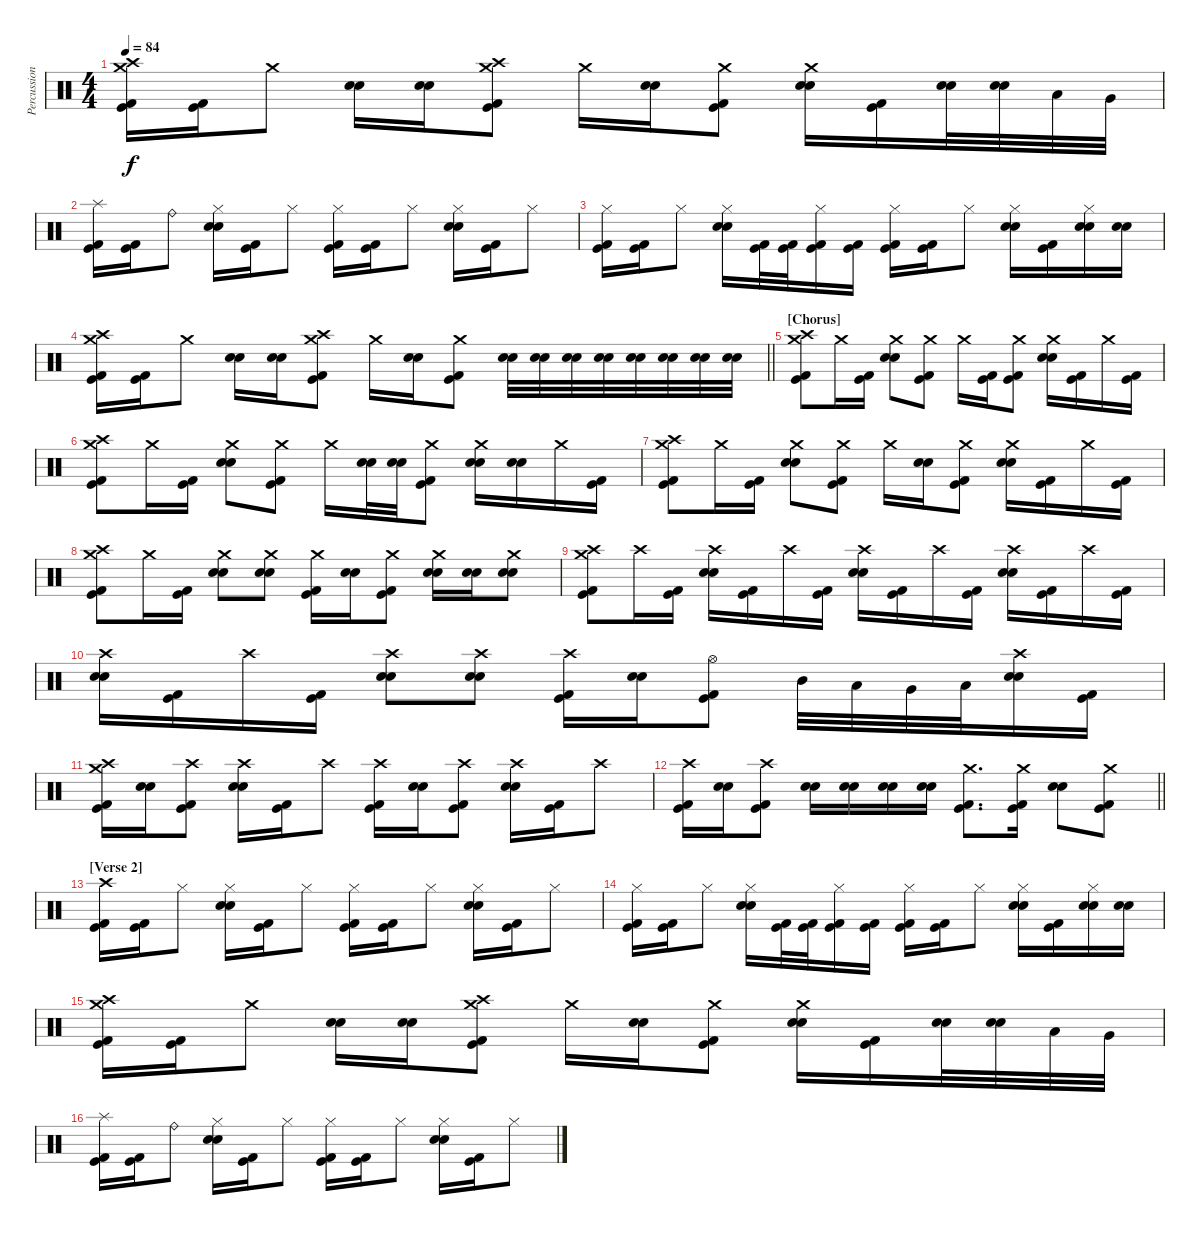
\track ("Percussion" "Percussion") {instrument percussion}
\staff {score}
\articulation defaults
\ts (4 4)
\tempo 84
\clef neutral
\ks c
("Crash high (hit)" "Crash medium (hit)" "Kick (hit)" "Kick (hit) 2").16{dy f} ("Kick (hit)" "Kick (hit) 2").16 "Crash medium (hit)".8 ("Electric Snare (hit)" "Snare (hit) 2").16 ("Electric Snare (hit)" "Snare (hit) 2").16 ("Crash high (hit)" "Crash medium (hit)" "Kick (hit)" "Kick (hit) 2").8 "Crash medium (hit)".16 ("Electric Snare (hit)" "Snare (hit) 2").16 ("Crash medium (hit)" "Kick (hit)" "Kick (hit) 2").8 ("Crash medium (hit)" "Electric Snare (hit)" "Snare (hit) 2").16 ("Kick (hit)" "Kick (hit) 2").16 ("Electric Snare (hit)" "Snare (hit) 2").32 ("Electric Snare (hit)" "Snare (hit) 2").32 "Low Tom (hit)".32 "Very Low Tom (hit)".32 |
("Splash (hit)" "Kick (hit)" "Kick (hit) 2").16{balance 2} ("Kick (hit)" "Kick (hit) 2").16 "Ride (bell)".8{balance 14} ("Hi-Hat (closed)" "Electric Snare (hit)" "Snare (hit) 2").16{balance 8} ("Kick (hit)" "Kick (hit) 2").16 "Hi-Hat (closed)".8 ("Hi-Hat (closed)" "Kick (hit)" "Kick (hit) 2").16 ("Kick (hit)" "Kick (hit) 2").16 "Hi-Hat (closed)".8 ("Hi-Hat (closed)" "Electric Snare (hit)" "Snare (hit) 2").16 ("Kick (hit)" "Kick (hit) 2").16 "Hi-Hat (closed)".8 |
("Hi-Hat (closed)" "Kick (hit)" "Kick (hit) 2").16 ("Kick (hit)" "Kick (hit) 2").16 "Hi-Hat (closed)".8 ("Hi-Hat (closed)" "Electric Snare (hit)" "Snare (hit) 2").16 ("Kick (hit)" "Kick (hit) 2").32 ("Kick (hit)" "Kick (hit) 2").32 ("Hi-Hat (closed)" "Kick (hit)" "Kick (hit) 2").16 ("Kick (hit)" "Kick (hit) 2").16 ("Hi-Hat (closed)" "Kick (hit)" "Kick (hit) 2").16 ("Kick (hit)" "Kick (hit) 2").16 "Hi-Hat (closed)".8 ("Hi-Hat (closed)" "Electric Snare (hit)" "Snare (hit) 2").16 ("Kick (hit)" "Kick (hit) 2").16 ("Hi-Hat (closed)" "Electric Snare (hit)" "Snare (hit) 2").16 ("Electric Snare (hit)" "Snare (hit) 2").16 |
\barLineRight lightlight
("Crash high (hit)" "Crash medium (hit)" "Kick (hit)" "Kick (hit) 2").16 ("Kick (hit)" "Kick (hit) 2").16 "Crash medium (hit)".8 ("Electric Snare (hit)" "Snare (hit) 2").16 ("Electric Snare (hit)" "Snare (hit) 2").16 ("Crash high (hit)" "Crash medium (hit)" "Kick (hit)" "Kick (hit) 2").8 "Crash medium (hit)".16 ("Electric Snare (hit)" "Snare (hit) 2").16 ("Crash medium (hit)" "Kick (hit)" "Kick (hit) 2").8 ("Electric Snare (hit)" "Snare (hit) 2").32 ("Electric Snare (hit)" "Snare (hit) 2").32 ("Electric Snare (hit)" "Snare (hit) 2").32 ("Electric Snare (hit)" "Snare (hit) 2").32 ("Electric Snare (hit)" "Snare (hit) 2").32 ("Electric Snare (hit)" "Snare (hit) 2").32 ("Electric Snare (hit)" "Snare (hit) 2").32 ("Electric Snare (hit)" "Snare (hit) 2").32 |
\section ("" "[Chorus]")
("Crash high (hit)" "Crash medium (hit)" "Kick (hit)" "Kick (hit) 2").8 "Crash medium (hit)".16 ("Kick (hit)" "Kick (hit) 2").16 ("Crash medium (hit)" "Electric Snare (hit)" "Snare (hit) 2").8 ("Crash medium (hit)" "Kick (hit)" "Kick (hit) 2").8 "Crash medium (hit)".16 ("Kick (hit)" "Kick (hit) 2").16 ("Crash medium (hit)" "Kick (hit)" "Kick (hit) 2").8 ("Crash medium (hit)" "Electric Snare (hit)" "Snare (hit) 2").16 ("Kick (hit)" "Kick (hit) 2").16 "Crash medium (hit)".16 ("Kick (hit)" "Kick (hit) 2").16 |
("Crash high (hit)" "Crash medium (hit)" "Kick (hit)" "Kick (hit) 2").8 "Crash medium (hit)".16 ("Kick (hit)" "Kick (hit) 2").16 ("Crash medium (hit)" "Electric Snare (hit)" "Snare (hit) 2").8 ("Crash medium (hit)" "Kick (hit)" "Kick (hit) 2").8 "Crash medium (hit)".16 ("Electric Snare (hit)" "Snare (hit) 2").32 ("Electric Snare (hit)" "Snare (hit) 2").32 ("Crash medium (hit)" "Kick (hit)" "Kick (hit) 2").8 ("Crash medium (hit)" "Electric Snare (hit)" "Snare (hit) 2").16 ("Electric Snare (hit)" "Snare (hit) 2").16 "Crash medium (hit)".16 ("Kick (hit)" "Kick (hit) 2").16 |
("Crash high (hit)" "Crash medium (hit)" "Kick (hit)" "Kick (hit) 2").8 "Crash medium (hit)".16 ("Kick (hit)" "Kick (hit) 2").16 ("Crash medium (hit)" "Electric Snare (hit)" "Snare (hit) 2").8 ("Crash medium (hit)" "Kick (hit)" "Kick (hit) 2").8 "Crash medium (hit)".16 ("Electric Snare (hit)" "Snare (hit) 2").16 ("Crash medium (hit)" "Kick (hit)" "Kick (hit) 2").8 ("Crash medium (hit)" "Electric Snare (hit)" "Snare (hit) 2").16 ("Kick (hit)" "Kick (hit) 2").16 "Crash medium (hit)".16 ("Kick (hit)" "Kick (hit) 2").16 |
("Crash high (hit)" "Crash medium (hit)" "Kick (hit)" "Kick (hit) 2").8 "Crash medium (hit)".16 ("Kick (hit)" "Kick (hit) 2").16 ("Crash medium (hit)" "Electric Snare (hit)" "Snare (hit) 2").8 ("Crash medium (hit)" "Electric Snare (hit)" "Snare (hit) 2").8 ("Crash medium (hit)" "Kick (hit)" "Kick (hit) 2").16 ("Electric Snare (hit)" "Snare (hit) 2").16 ("Crash medium (hit)" "Kick (hit)" "Kick (hit) 2").8 ("Crash medium (hit)" "Electric Snare (hit)" "Snare (hit) 2").16 ("Electric Snare (hit)" "Snare (hit) 2").16 ("Crash medium (hit)" "Electric Snare (hit)" "Snare (hit) 2").8 |
("Crash high (hit)" "Crash medium (hit)" "Kick (hit)" "Kick (hit) 2").8 "Crash high (hit)".16 ("Kick (hit)" "Kick (hit) 2").16 ("Crash high (hit)" "Electric Snare (hit)" "Snare (hit) 2").16 ("Kick (hit)" "Kick (hit) 2").16 "Crash high (hit)".16 ("Kick (hit)" "Kick (hit) 2").16 ("Crash high (hit)" "Electric Snare (hit)" "Snare (hit) 2").16 ("Kick (hit)" "Kick (hit) 2").16 "Crash high (hit)".16 ("Kick (hit)" "Kick (hit) 2").16 ("Crash high (hit)" "Electric Snare (hit)" "Snare (hit) 2").16 ("Kick (hit)" "Kick (hit) 2").16 "Crash high (hit)".16 ("Kick (hit)" "Kick (hit) 2").16 |
("Crash high (hit)" "Electric Snare (hit)" "Snare (hit) 2").16 ("Kick (hit)" "Kick (hit) 2").16 "Crash high (hit)".16 ("Kick (hit)" "Kick (hit) 2").16 ("Crash high (hit)" "Electric Snare (hit)" "Snare (hit) 2").8 ("Crash high (hit)" "Electric Snare (hit)" "Snare (hit) 2").8 ("Crash high (hit)" "Kick (hit)" "Kick (hit) 2").16 ("Electric Snare (hit)" "Snare (hit) 2").16 ("Hi-Hat (open)" "Kick (hit)" "Kick (hit) 2").8 "Mid Tom (hit)".32 "Low Tom (hit)".32 "Very Low Tom (hit)".32 "Low Floor Tom (hit)".32 ("Crash high (hit)" "Electric Snare (hit)" "Snare (hit) 2").16 ("Kick (hit)" "Kick (hit) 2").16 |
("Crash high (hit)" "Crash medium (hit)" "Kick (hit)" "Kick (hit) 2").16 ("Electric Snare (hit)" "Snare (hit) 2").16 ("Crash high (hit)" "Kick (hit)" "Kick (hit) 2").8 ("Crash high (hit)" "Electric Snare (hit)" "Snare (hit) 2").16 ("Kick (hit)" "Kick (hit) 2").16 "Crash high (hit)".8 ("Crash high (hit)" "Kick (hit)" "Kick (hit) 2").16 ("Electric Snare (hit)" "Snare (hit) 2").16 ("Crash high (hit)" "Kick (hit)" "Kick (hit) 2").8 ("Crash high (hit)" "Electric Snare (hit)" "Snare (hit) 2").16 ("Kick (hit)" "Kick (hit) 2").16 "Crash high (hit)".8 |
\barLineRight lightlight
("Crash high (hit)" "Kick (hit)" "Kick (hit) 2").16 ("Electric Snare (hit)" "Snare (hit) 2").16 ("Crash high (hit)" "Kick (hit)" "Kick (hit) 2").8 ("Electric Snare (hit)" "Snare (hit) 2").16 ("Electric Snare (hit)" "Snare (hit) 2").16 ("Electric Snare (hit)" "Snare (hit) 2").16 ("Electric Snare (hit)" "Snare (hit) 2").16 ("Crash medium (hit)" "Kick (hit)" "Kick (hit) 2").8{d} ("Crash medium (hit)" "Kick (hit)" "Kick (hit) 2").16 ("Electric Snare (hit)" "Snare (hit) 2").8 ("Crash medium (hit)" "Kick (hit)" "Kick (hit) 2").8 |
\section ("" "[Verse 2]")
("Crash high (hit)" "Kick (hit)" "Kick (hit) 2").16 ("Kick (hit)" "Kick (hit) 2").16 "Hi-Hat (closed)".8 ("Hi-Hat (closed)" "Electric Snare (hit)" "Snare (hit) 2").16 ("Kick (hit)" "Kick (hit) 2").16 "Hi-Hat (closed)".8 ("Hi-Hat (closed)" "Kick (hit)" "Kick (hit) 2").16 ("Kick (hit)" "Kick (hit) 2").16 "Hi-Hat (closed)".8 ("Hi-Hat (closed)" "Electric Snare (hit)" "Snare (hit) 2").16 ("Kick (hit)" "Kick (hit) 2").16 "Hi-Hat (closed)".8 |
("Hi-Hat (closed)" "Kick (hit)" "Kick (hit) 2").16 ("Kick (hit)" "Kick (hit) 2").16 "Hi-Hat (closed)".8 ("Hi-Hat (closed)" "Electric Snare (hit)" "Snare (hit) 2").16 ("Kick (hit)" "Kick (hit) 2").32 ("Kick (hit)" "Kick (hit) 2").32 ("Hi-Hat (closed)" "Kick (hit)" "Kick (hit) 2").16 ("Kick (hit)" "Kick (hit) 2").16 ("Hi-Hat (closed)" "Kick (hit)" "Kick (hit) 2").16 ("Kick (hit)" "Kick (hit) 2").16 "Hi-Hat (closed)".8 ("Hi-Hat (closed)" "Electric Snare (hit)" "Snare (hit) 2").16 ("Kick (hit)" "Kick (hit) 2").16 ("Hi-Hat (closed)" "Electric Snare (hit)" "Snare (hit) 2").16 ("Electric Snare (hit)" "Snare (hit) 2").16 |
("Crash high (hit)" "Crash medium (hit)" "Kick (hit)" "Kick (hit) 2").16 ("Kick (hit)" "Kick (hit) 2").16 "Crash medium (hit)".8 ("Electric Snare (hit)" "Snare (hit) 2").16 ("Electric Snare (hit)" "Snare (hit) 2").16 ("Crash high (hit)" "Crash medium (hit)" "Kick (hit)" "Kick (hit) 2").8 "Crash medium (hit)".16 ("Electric Snare (hit)" "Snare (hit) 2").16 ("Crash medium (hit)" "Kick (hit)" "Kick (hit) 2").8 ("Crash medium (hit)" "Electric Snare (hit)" "Snare (hit) 2").16 ("Kick (hit)" "Kick (hit) 2").16 ("Electric Snare (hit)" "Snare (hit) 2").32 ("Electric Snare (hit)" "Snare (hit) 2").32 "Low Tom (hit)".32 "Very Low Tom (hit)".32 |
("Splash (hit)" "Kick (hit)" "Kick (hit) 2").16{balance 2} ("Kick (hit)" "Kick (hit) 2").16 "Ride (bell)".8{balance 14} ("Hi-Hat (closed)" "Electric Snare (hit)" "Snare (hit) 2").16{balance 8} ("Kick (hit)" "Kick (hit) 2").16 "Hi-Hat (closed)".8 ("Hi-Hat (closed)" "Kick (hit)" "Kick (hit) 2").16 ("Kick (hit)" "Kick (hit) 2").16 "Hi-Hat (closed)".8 ("Hi-Hat (closed)" "Electric Snare (hit)" "Snare (hit) 2").16 ("Kick (hit)" "Kick (hit) 2").16 "Hi-Hat (closed)".8
